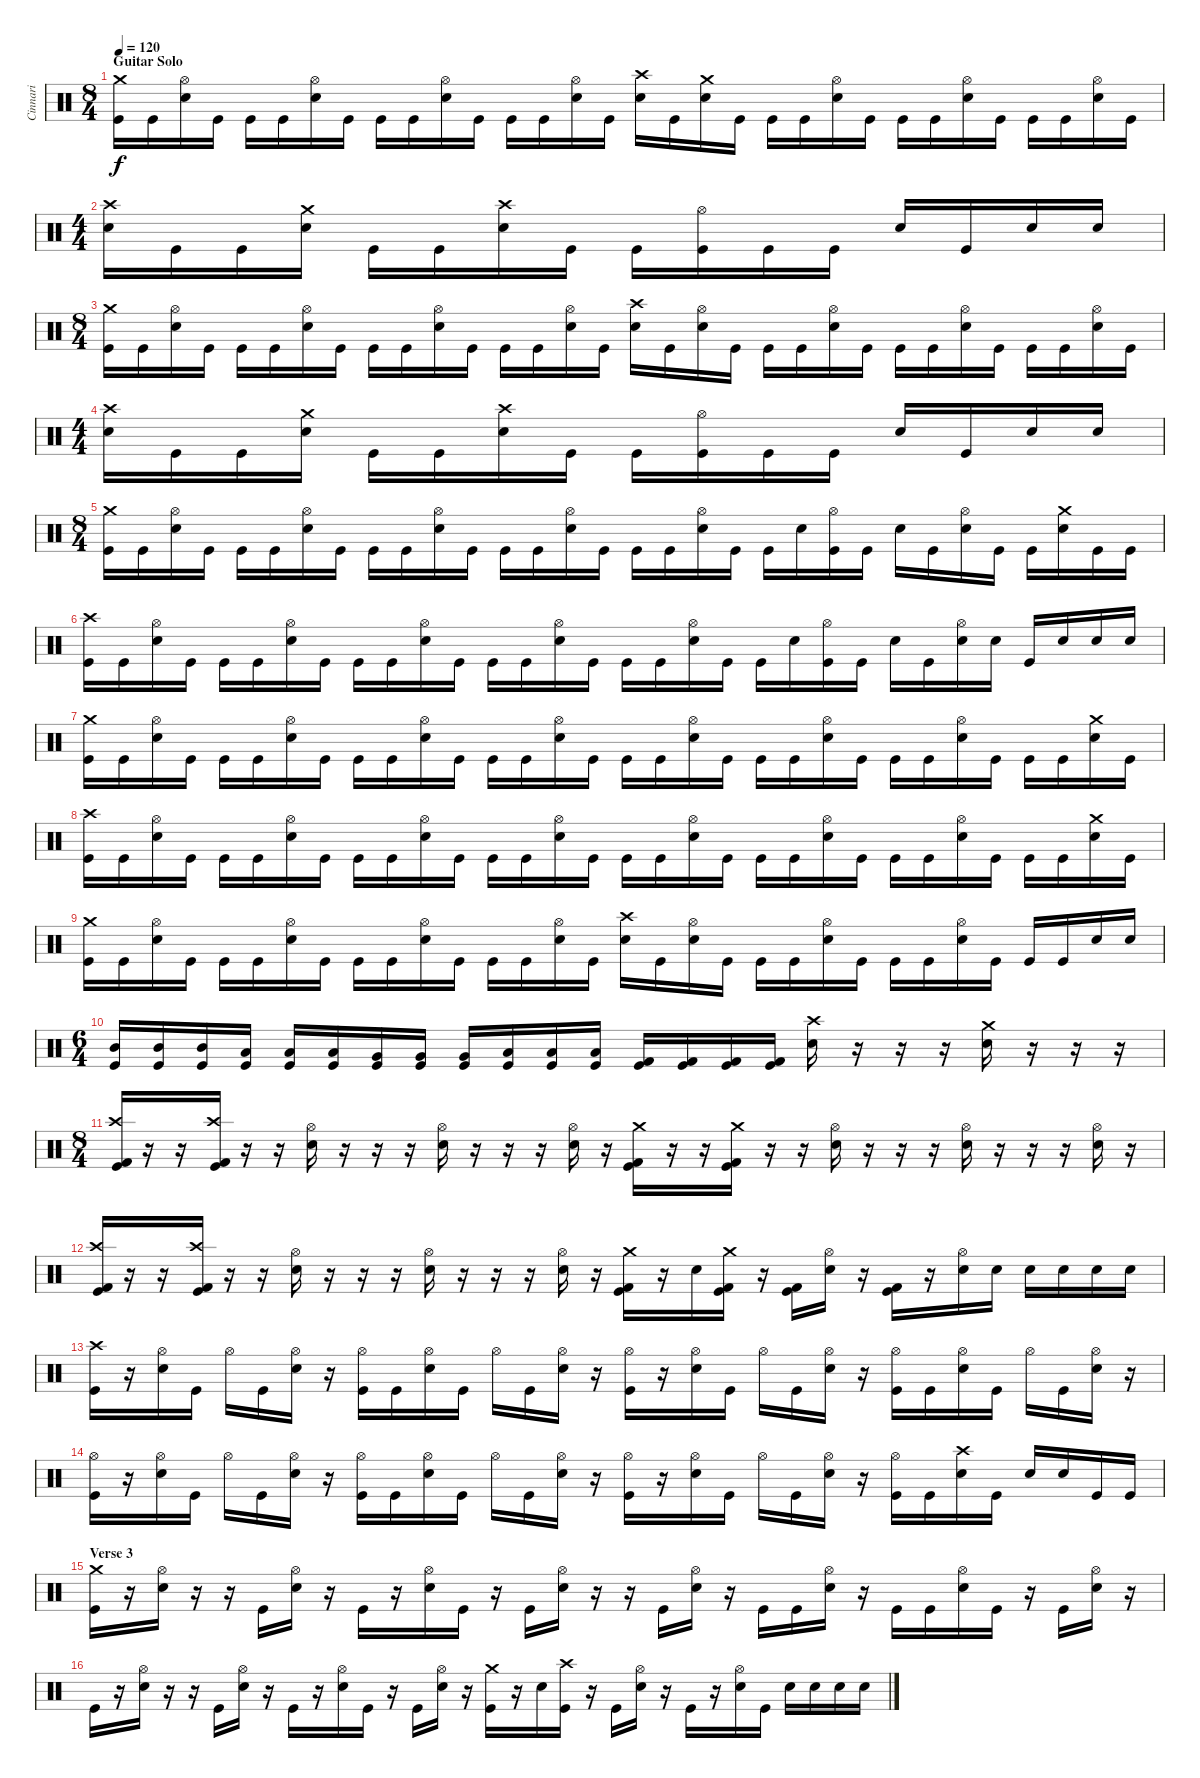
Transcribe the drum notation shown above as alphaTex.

\track ("Cinnari" "Cinnari") {instrument percussion}
\staff {score}
\articulation defaults
\ts (8 4)
\section ("" "Guitar Solo")
\tempo 120
\clef neutral
\ks c
("Crash medium (hit)" "Kick (hit)").16{dy f} "Kick (hit)".16 ("Hi-Hat (open)" "Electric Snare (hit)").16 "Kick (hit)".16 "Kick (hit)".16 "Kick (hit)".16 ("Hi-Hat (open)" "Electric Snare (hit)").16 "Kick (hit)".16 "Kick (hit)".16 "Kick (hit)".16 ("Hi-Hat (open)" "Electric Snare (hit)").16 "Kick (hit)".16 "Kick (hit)".16 "Kick (hit)".16 ("Hi-Hat (open)" "Electric Snare (hit)").16 "Kick (hit)".16 ("Crash high (hit)" "Electric Snare (hit)").16 "Kick (hit)".16 ("Crash medium (hit)" "Electric Snare (hit)").16 "Kick (hit)".16 "Kick (hit)".16 "Kick (hit)".16 ("Hi-Hat (open)" "Electric Snare (hit)").16 "Kick (hit)".16 "Kick (hit)".16 "Kick (hit)".16 ("Hi-Hat (open)" "Electric Snare (hit)").16 "Kick (hit)".16 "Kick (hit)".16 "Kick (hit)".16 ("Hi-Hat (open)" "Electric Snare (hit)").16 "Kick (hit)".16 |
\ts (4 4)
("Crash high (hit)" "Electric Snare (hit)").16 "Kick (hit)".16 "Kick (hit)".16 ("Crash medium (hit)" "Electric Snare (hit)").16 "Kick (hit)".16 "Kick (hit)".16 ("Crash high (hit)" "Electric Snare (hit)").16 "Kick (hit)".16 "Kick (hit)".16 ("Hi-Hat (open)" "Kick (hit)").16 "Kick (hit)".16 "Kick (hit)".16 "Electric Snare (hit)".16 "Kick (hit)".16 "Electric Snare (hit)".16 "Electric Snare (hit)".16 |
\ts (8 4)
("Crash medium (hit)" "Kick (hit)").16 "Kick (hit)".16 ("Hi-Hat (open)" "Electric Snare (hit)").16 "Kick (hit)".16 "Kick (hit)".16 "Kick (hit)".16 ("Hi-Hat (open)" "Electric Snare (hit)").16 "Kick (hit)".16 "Kick (hit)".16 "Kick (hit)".16 ("Hi-Hat (open)" "Electric Snare (hit)").16 "Kick (hit)".16 "Kick (hit)".16 "Kick (hit)".16 ("Hi-Hat (open)" "Electric Snare (hit)").16 "Kick (hit)".16 ("Crash high (hit)" "Electric Snare (hit)").16 "Kick (hit)".16 ("Hi-Hat (open)" "Electric Snare (hit)").16 "Kick (hit)".16 "Kick (hit)".16 "Kick (hit)".16 ("Hi-Hat (open)" "Electric Snare (hit)").16 "Kick (hit)".16 "Kick (hit)".16 "Kick (hit)".16 ("Hi-Hat (open)" "Electric Snare (hit)").16 "Kick (hit)".16 "Kick (hit)".16 "Kick (hit)".16 ("Hi-Hat (open)" "Electric Snare (hit)").16 "Kick (hit)".16 |
\ts (4 4)
("Crash high (hit)" "Electric Snare (hit)").16 "Kick (hit)".16 "Kick (hit)".16 ("Crash medium (hit)" "Electric Snare (hit)").16 "Kick (hit)".16 "Kick (hit)".16 ("Crash high (hit)" "Electric Snare (hit)").16 "Kick (hit)".16 "Kick (hit)".16 ("Hi-Hat (open)" "Kick (hit)").16 "Kick (hit)".16 "Kick (hit)".16 "Electric Snare (hit)".16 "Kick (hit)".16 "Electric Snare (hit)".16 "Electric Snare (hit)".16 |
\ts (8 4)
("Crash medium (hit)" "Kick (hit)").16 "Kick (hit)".16 ("Hi-Hat (open)" "Electric Snare (hit)").16 "Kick (hit)".16 "Kick (hit)".16 "Kick (hit)".16 ("Hi-Hat (open)" "Electric Snare (hit)").16 "Kick (hit)".16 "Kick (hit)".16 "Kick (hit)".16 ("Hi-Hat (open)" "Electric Snare (hit)").16 "Kick (hit)".16 "Kick (hit)".16 "Kick (hit)".16 ("Hi-Hat (open)" "Electric Snare (hit)").16 "Kick (hit)".16 "Kick (hit)".16 "Kick (hit)".16 ("Hi-Hat (open)" "Electric Snare (hit)").16 "Kick (hit)".16 "Kick (hit)".16 "Electric Snare (hit)".16 ("Hi-Hat (open)" "Kick (hit)").16 "Kick (hit)".16 "Electric Snare (hit)".16 "Kick (hit)".16 ("Hi-Hat (open)" "Electric Snare (hit)").16 "Kick (hit)".16 "Kick (hit)".16 ("Crash medium (hit)" "Electric Snare (hit)").16 "Kick (hit)".16 "Kick (hit)".16 |
("Crash high (hit)" "Kick (hit)").16 "Kick (hit)".16 ("Hi-Hat (open)" "Electric Snare (hit)").16 "Kick (hit)".16 "Kick (hit)".16 "Kick (hit)".16 ("Hi-Hat (open)" "Electric Snare (hit)").16 "Kick (hit)".16 "Kick (hit)".16 "Kick (hit)".16 ("Hi-Hat (open)" "Electric Snare (hit)").16 "Kick (hit)".16 "Kick (hit)".16 "Kick (hit)".16 ("Hi-Hat (open)" "Electric Snare (hit)").16 "Kick (hit)".16 "Kick (hit)".16 "Kick (hit)".16 ("Hi-Hat (open)" "Electric Snare (hit)").16 "Kick (hit)".16 "Kick (hit)".16 "Electric Snare (hit)".16 ("Hi-Hat (open)" "Kick (hit)").16 "Kick (hit)".16 "Electric Snare (hit)".16 "Kick (hit)".16 ("Hi-Hat (open)" "Electric Snare (hit)").16 "Electric Snare (hit)".16 "Kick (hit)".16 "Electric Snare (hit)".16 "Electric Snare (hit)".16 "Electric Snare (hit)".16 |
("Crash medium (hit)" "Kick (hit)").16 "Kick (hit)".16 ("Hi-Hat (open)" "Electric Snare (hit)").16 "Kick (hit)".16 "Kick (hit)".16 "Kick (hit)".16 ("Hi-Hat (open)" "Electric Snare (hit)").16 "Kick (hit)".16 "Kick (hit)".16 "Kick (hit)".16 ("Hi-Hat (open)" "Electric Snare (hit)").16 "Kick (hit)".16 "Kick (hit)".16 "Kick (hit)".16 ("Hi-Hat (open)" "Electric Snare (hit)").16 "Kick (hit)".16 "Kick (hit)".16 "Kick (hit)".16 ("Hi-Hat (open)" "Electric Snare (hit)").16 "Kick (hit)".16 "Kick (hit)".16 "Kick (hit)".16 ("Hi-Hat (open)" "Electric Snare (hit)").16 "Kick (hit)".16 "Kick (hit)".16 "Kick (hit)".16 ("Hi-Hat (open)" "Electric Snare (hit)").16 "Kick (hit)".16 "Kick (hit)".16 "Kick (hit)".16 ("Crash medium (hit)" "Electric Snare (hit)").16 "Kick (hit)".16 |
("Crash high (hit)" "Kick (hit)").16 "Kick (hit)".16 ("Hi-Hat (open)" "Electric Snare (hit)").16 "Kick (hit)".16 "Kick (hit)".16 "Kick (hit)".16 ("Hi-Hat (open)" "Electric Snare (hit)").16 "Kick (hit)".16 "Kick (hit)".16 "Kick (hit)".16 ("Hi-Hat (open)" "Electric Snare (hit)").16 "Kick (hit)".16 "Kick (hit)".16 "Kick (hit)".16 ("Hi-Hat (open)" "Electric Snare (hit)").16 "Kick (hit)".16 "Kick (hit)".16 "Kick (hit)".16 ("Hi-Hat (open)" "Electric Snare (hit)").16 "Kick (hit)".16 "Kick (hit)".16 "Kick (hit)".16 ("Hi-Hat (open)" "Electric Snare (hit)").16 "Kick (hit)".16 "Kick (hit)".16 "Kick (hit)".16 ("Hi-Hat (open)" "Electric Snare (hit)").16 "Kick (hit)".16 "Kick (hit)".16 "Kick (hit)".16 ("Crash medium (hit)" "Electric Snare (hit)").16 "Kick (hit)".16 |
("Crash medium (hit)" "Kick (hit)").16 "Kick (hit)".16 ("Hi-Hat (open)" "Electric Snare (hit)").16 "Kick (hit)".16 "Kick (hit)".16 "Kick (hit)".16 ("Hi-Hat (open)" "Electric Snare (hit)").16 "Kick (hit)".16 "Kick (hit)".16 "Kick (hit)".16 ("Hi-Hat (open)" "Electric Snare (hit)").16 "Kick (hit)".16 "Kick (hit)".16 "Kick (hit)".16 ("Hi-Hat (open)" "Electric Snare (hit)").16 "Kick (hit)".16 ("Crash high (hit)" "Electric Snare (hit)").16 "Kick (hit)".16 ("Hi-Hat (open)" "Electric Snare (hit)").16 "Kick (hit)".16 "Kick (hit)".16 "Kick (hit)".16 ("Hi-Hat (open)" "Electric Snare (hit)").16 "Kick (hit)".16 "Kick (hit)".16 "Kick (hit)".16 ("Hi-Hat (open)" "Electric Snare (hit)").16 "Kick (hit)".16 "Kick (hit)".16 "Kick (hit)".16 "Electric Snare (hit)".16 "Electric Snare (hit)".16 |
\ts (6 4)
("Mid Tom (hit)" "Kick (hit)").16 ("Mid Tom (hit)" "Kick (hit)").16 ("Mid Tom (hit)" "Kick (hit)").16 ("Low Tom (hit)" "Kick (hit)").16 ("Low Tom (hit)" "Kick (hit)").16 ("Low Tom (hit)" "Kick (hit)").16 ("Very Low Tom (hit)" "Kick (hit)").16 ("Very Low Tom (hit)" "Kick (hit)").16 ("Very Low Tom (hit)" "Kick (hit)").16 ("Low Floor Tom (hit)" "Kick (hit)").16 ("Low Floor Tom (hit)" "Kick (hit)").16 ("Low Floor Tom (hit)" "Kick (hit)").16 ("Kick (hit) 2" "Kick (hit)").16 ("Kick (hit) 2" "Kick (hit)").16 ("Kick (hit) 2" "Kick (hit)").16 ("Kick (hit) 2" "Kick (hit)").16 ("Crash high (hit)" "Electric Snare (hit)").16 r.16 r.16 r.16 ("Crash medium (hit)" "Electric Snare (hit)").16 r.16 r.16 r.16 |
\ts (8 4)
("Crash high (hit)" "Kick (hit) 2" "Kick (hit)").16 r.16 r.16 ("Crash high (hit)" "Kick (hit) 2" "Kick (hit)").16 r.16 r.16 ("Hi-Hat (open)" "Electric Snare (hit)").16 r.16 r.16 r.16 ("Hi-Hat (open)" "Electric Snare (hit)").16 r.16 r.16 r.16 ("Hi-Hat (open)" "Electric Snare (hit)").16 r.16 ("Crash medium (hit)" "Kick (hit) 2" "Kick (hit)").16 r.16 r.16 ("Crash medium (hit)" "Kick (hit) 2" "Kick (hit)").16 r.16 r.16 ("Hi-Hat (open)" "Electric Snare (hit)").16 r.16 r.16 r.16 ("Hi-Hat (open)" "Electric Snare (hit)").16 r.16 r.16 r.16 ("Hi-Hat (open)" "Electric Snare (hit)").16 r.16 |
("Crash high (hit)" "Kick (hit) 2" "Kick (hit)").16 r.16 r.16 ("Crash high (hit)" "Kick (hit) 2" "Kick (hit)").16 r.16 r.16 ("Hi-Hat (open)" "Electric Snare (hit)").16 r.16 r.16 r.16 ("Hi-Hat (open)" "Electric Snare (hit)").16 r.16 r.16 r.16 ("Hi-Hat (open)" "Electric Snare (hit)").16 r.16 ("Crash medium (hit)" "Kick (hit) 2" "Kick (hit)").16 r.16 "Electric Snare (hit)".16 ("Crash medium (hit)" "Kick (hit) 2" "Kick (hit)").16 r.16 ("Kick (hit) 2" "Kick (hit)").16 ("Hi-Hat (open)" "Electric Snare (hit)").16 r.16 ("Kick (hit) 2" "Kick (hit)").16 r.16 ("Hi-Hat (open)" "Electric Snare (hit)").16 "Electric Snare (hit)".16 "Electric Snare (hit)".16 "Electric Snare (hit)".16 "Electric Snare (hit)".16 "Electric Snare (hit)".16 |
("Crash high (hit)" "Kick (hit)").16 r.16 ("Hi-Hat (open)" "Electric Snare (hit)").16 "Kick (hit)".16 "Hi-Hat (open)".16 "Kick (hit)".16 ("Hi-Hat (open)" "Electric Snare (hit)").16 r.16 ("Hi-Hat (open)" "Kick (hit)").16 "Kick (hit)".16 ("Hi-Hat (open)" "Electric Snare (hit)").16 "Kick (hit)".16 "Hi-Hat (open)".16 "Kick (hit)".16 ("Hi-Hat (open)" "Electric Snare (hit)").16 r.16 ("Hi-Hat (open)" "Kick (hit)").16 r.16 ("Hi-Hat (open)" "Electric Snare (hit)").16 "Kick (hit)".16 "Hi-Hat (open)".16 "Kick (hit)".16 ("Hi-Hat (open)" "Electric Snare (hit)").16 r.16 ("Hi-Hat (open)" "Kick (hit)").16 "Kick (hit)".16 ("Hi-Hat (open)" "Electric Snare (hit)").16 "Kick (hit)".16 "Hi-Hat (open)".16 "Kick (hit)".16 ("Hi-Hat (open)" "Electric Snare (hit)").16 r.16 |
("Hi-Hat (open)" "Kick (hit)").16 r.16 ("Hi-Hat (open)" "Electric Snare (hit)").16 "Kick (hit)".16 "Hi-Hat (open)".16 "Kick (hit)".16 ("Hi-Hat (open)" "Electric Snare (hit)").16 r.16 ("Hi-Hat (open)" "Kick (hit)").16 "Kick (hit)".16 ("Hi-Hat (open)" "Electric Snare (hit)").16 "Kick (hit)".16 "Hi-Hat (open)".16 "Kick (hit)".16 ("Hi-Hat (open)" "Electric Snare (hit)").16 r.16 ("Hi-Hat (open)" "Kick (hit)").16 r.16 ("Hi-Hat (open)" "Electric Snare (hit)").16 "Kick (hit)".16 "Hi-Hat (open)".16 "Kick (hit)".16 ("Hi-Hat (open)" "Electric Snare (hit)").16 r.16 ("Hi-Hat (open)" "Kick (hit)").16 "Kick (hit)".16 ("Crash high (hit)" "Electric Snare (hit)").16 "Kick (hit)".16 "Electric Snare (hit)".16 "Electric Snare (hit)".16 "Kick (hit)".16 "Kick (hit)".16 |
\section ("" "Verse 3")
("Crash medium (hit)" "Kick (hit)").16 r.16 ("Hi-Hat (open)" "Electric Snare (hit)").16 r.16 r.16 "Kick (hit)".16 ("Hi-Hat (open)" "Electric Snare (hit)").16 r.16 "Kick (hit)".16 r.16 ("Hi-Hat (open)" "Electric Snare (hit)").16 "Kick (hit)".16 r.16 "Kick (hit)".16 ("Hi-Hat (open)" "Electric Snare (hit)").16 r.16 r.16 "Kick (hit)".16 ("Hi-Hat (open)" "Electric Snare (hit)").16 r.16 "Kick (hit)".16 "Kick (hit)".16 ("Hi-Hat (open)" "Electric Snare (hit)").16 r.16 "Kick (hit)".16 "Kick (hit)".16 ("Hi-Hat (open)" "Electric Snare (hit)").16 "Kick (hit)".16 r.16 "Kick (hit)".16 ("Hi-Hat (open)" "Electric Snare (hit)").16 r.16 |
"Kick (hit)".16 r.16 ("Hi-Hat (open)" "Electric Snare (hit)").16 r.16 r.16 "Kick (hit)".16 ("Hi-Hat (open)" "Electric Snare (hit)").16 r.16 "Kick (hit)".16 r.16 ("Hi-Hat (open)" "Electric Snare (hit)").16 "Kick (hit)".16 r.16 "Kick (hit)".16 ("Hi-Hat (open)" "Electric Snare (hit)").16 r.16 ("Crash medium (hit)" "Kick (hit)").16 r.16 "Electric Snare (hit)".16 ("Crash high (hit)" "Kick (hit)").16 r.16 "Kick (hit)".16 ("Hi-Hat (open)" "Electric Snare (hit)").16 r.16 "Kick (hit)".16 r.16 ("Hi-Hat (open)" "Electric Snare (hit)").16 "Kick (hit)".16 "Electric Snare (hit)".16 "Electric Snare (hit)".16 "Electric Snare (hit)".16 "Electric Snare (hit)".16
